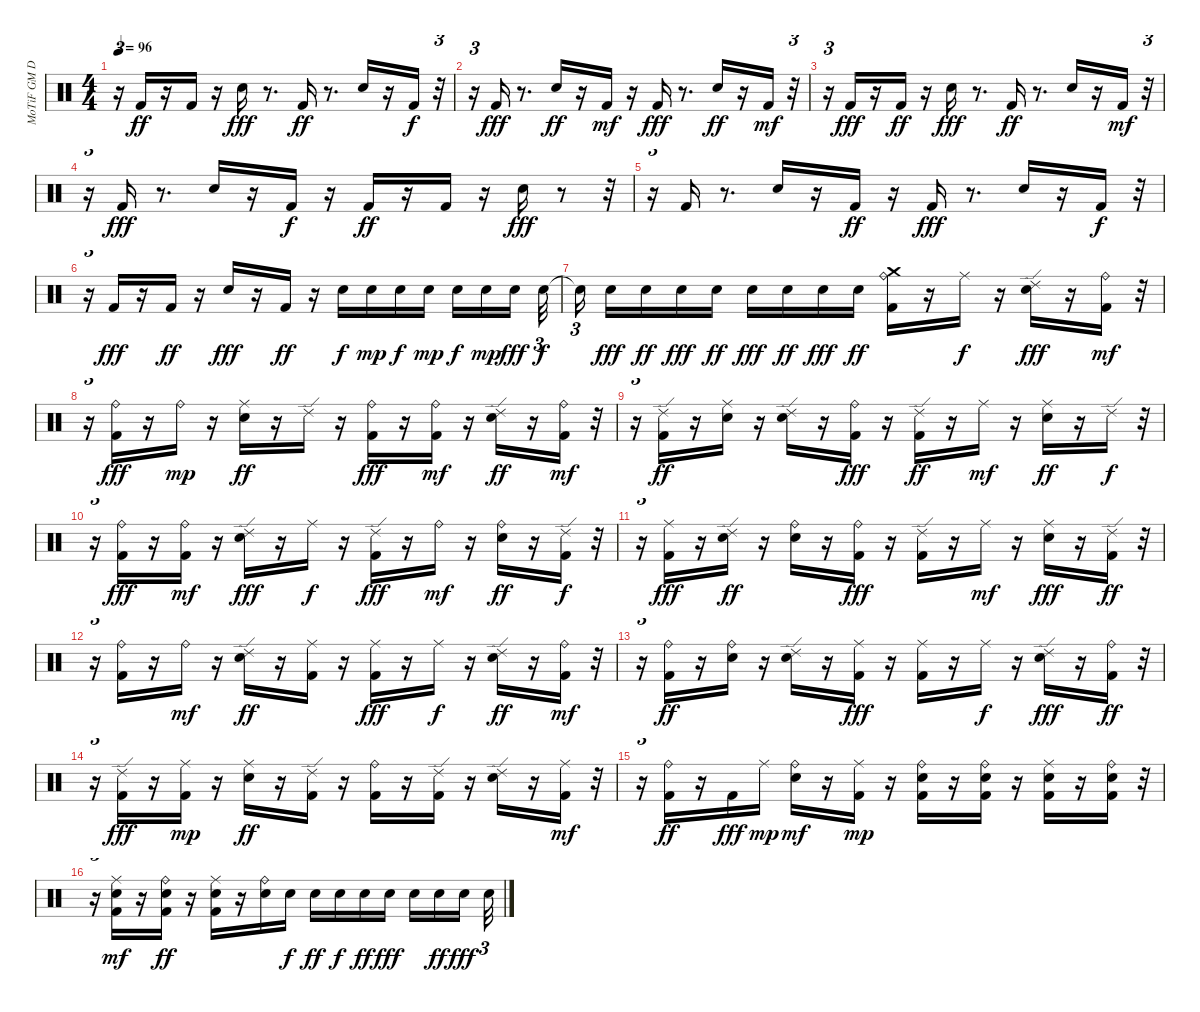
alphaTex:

\track ("MoTiF GM Drums" "MoTiF GM D") {instrument percussion}
\staff {score}
\articulation defaults
\ts (4 4)
\tempo 96
\clef neutral
\ks c
r.16{tu (3 2) dy f} "Kick (hit) 2".16{dy ff} r.16 "Kick (hit) 2".16 r.16 "Electric Snare (hit)".16{dy fff} r.8{d} "Kick (hit) 2".16{dy ff} r.8{d} "Electric Snare (hit)".16 r.16 "Kick (hit) 2".16{dy f} r.32{tu (3 2)} |
r.16{tu (3 2)} "Kick (hit) 2".16{dy fff} r.8{d} "Electric Snare (hit)".16{dy ff} r.16 "Kick (hit) 2".16{dy mf} r.16 "Kick (hit) 2".16{dy fff} r.8{d} "Electric Snare (hit)".16{dy ff} r.16 "Kick (hit) 2".16{dy mf} r.32{tu (3 2)} |
r.16{tu (3 2)} "Kick (hit) 2".16{dy fff} r.16 "Kick (hit) 2".16{dy ff} r.16 "Electric Snare (hit)".16{dy fff} r.8{d} "Kick (hit) 2".16{dy ff} r.8{d} "Electric Snare (hit)".16 r.16 "Kick (hit) 2".16{dy mf} r.32{tu (3 2)} |
r.16{tu (3 2)} "Kick (hit) 2".16{dy fff} r.8{d} "Electric Snare (hit)".16 r.16 "Kick (hit) 2".16{dy f} r.16 "Kick (hit) 2".16{dy ff} r.16 "Kick (hit) 2".16 r.16 "Electric Snare (hit)".16{dy fff} r.8 r.32{tu (3 2)} |
r.16{tu (3 2)} "Kick (hit) 2".16 r.8{d} "Electric Snare (hit)".16 r.16 "Kick (hit) 2".16{dy ff} r.16 "Kick (hit) 2".16{dy fff} r.8{d} "Electric Snare (hit)".16 r.16 "Kick (hit) 2".16{dy f} r.32{tu (3 2)} |
r.16{tu (3 2)} "Kick (hit) 2".16{dy fff} r.16 "Kick (hit) 2".16{dy ff} r.16 "Electric Snare (hit)".16{dy fff} r.16 "Kick (hit) 2".16{dy ff} r.16 "Electric Snare (hit)".16{dy f} "Electric Snare (hit)".16{dy mp} "Electric Snare (hit)".16{dy f} "Electric Snare (hit)".16{dy mp} "Electric Snare (hit)".16{dy f} "Electric Snare (hit)".16{dy mp} "Electric Snare (hit)".16{dy fff} "Electric Snare (hit)".32{tu (3 2) dy f} |
"Snare (hit)"{t}.16{tu (3 2)} "Electric Snare (hit)".16{dy fff} "Electric Snare (hit)".16{dy ff} "Electric Snare (hit)".16{dy fff} "Electric Snare (hit)".16{dy ff} "Electric Snare (hit)".16{dy fff} "Electric Snare (hit)".16{dy ff} "Electric Snare (hit)".16{dy fff} "Electric Snare (hit)".16{dy ff} ("Kick (hit) 2" "Ride (bell)" "Crash medium (hit)").16 r.16 "Ride (middle)".16{dy f} r.16 ("Electric Snare (hit)" "Ride (edge) 2").16{dy fff} r.16 ("Kick (hit) 2" "Ride (bell)").16{dy mf} r.32{tu (3 2)} |
r.16{tu (3 2)} ("Kick (hit) 2" "Ride (bell)").16{dy fff} r.16 "Ride (bell)".16{dy mp} r.16 ("Electric Snare (hit)" "Ride (middle)").16{dy ff} r.16 "Ride (edge) 2".16 r.16 ("Kick (hit) 2" "Ride (bell)").16{dy fff} r.16 ("Kick (hit) 2" "Ride (bell)").16{dy mf} r.16 ("Electric Snare (hit)" "Ride (edge) 2").16{dy ff} r.16 ("Kick (hit) 2" "Ride (bell)").16{dy mf} r.32{tu (3 2)} |
r.16{tu (3 2)} ("Kick (hit) 2" "Ride (edge) 2").16{dy ff} r.16 ("Electric Snare (hit)" "Ride (middle)").16 r.16 ("Electric Snare (hit)" "Ride (edge) 2").16 r.16 ("Kick (hit) 2" "Ride (bell)").16{dy fff} r.16 ("Kick (hit) 2" "Ride (edge) 2").16{dy ff} r.16 "Ride (middle)".16{dy mf} r.16 ("Electric Snare (hit)" "Ride (middle)").16{dy ff} r.16 "Ride (edge) 2".16{dy f} r.32{tu (3 2)} |
r.16{tu (3 2)} ("Kick (hit) 2" "Ride (bell)").16{dy fff} r.16 ("Kick (hit) 2" "Ride (bell)").16{dy mf} r.16 ("Electric Snare (hit)" "Ride (edge) 2").16{dy fff} r.16 "Ride (middle)".16{dy f} r.16 ("Kick (hit) 2" "Ride (edge) 2").16{dy fff} r.16 "Ride (bell)".16{dy mf} r.16 ("Electric Snare (hit)" "Ride (bell)").16{dy ff} r.16 ("Kick (hit) 2" "Ride (edge) 2").16{dy f} r.32{tu (3 2)} |
r.16{tu (3 2)} ("Kick (hit) 2" "Ride (middle)").16{dy fff} r.16 ("Electric Snare (hit)" "Ride (edge) 2").16{dy ff} r.16 ("Electric Snare (hit)" "Ride (bell)").16 r.16 ("Kick (hit) 2" "Ride (bell)").16{dy fff} r.16 ("Kick (hit) 2" "Ride (edge) 2").16 r.16 "Ride (middle)".16{dy mf} r.16 ("Electric Snare (hit)" "Ride (middle)").16{dy fff} r.16 ("Kick (hit) 2" "Ride (edge) 2").16{dy ff} r.32{tu (3 2)} |
r.16{tu (3 2)} ("Kick (hit) 2" "Ride (bell)").16 r.16 "Ride (bell)".16{dy mf} r.16 ("Electric Snare (hit)" "Ride (edge) 2").16{dy ff} r.16 ("Kick (hit) 2" "Ride (middle)").16 r.16 ("Kick (hit) 2" "Ride (middle)").16{dy fff} r.16 "Ride (middle)".16{dy f} r.16 ("Electric Snare (hit)" "Ride (edge) 2").16{dy ff} r.16 ("Kick (hit) 2" "Ride (bell)").16{dy mf} r.32{tu (3 2)} |
r.16{tu (3 2)} ("Kick (hit) 2" "Ride (bell)").16{dy ff} r.16 ("Electric Snare (hit)" "Ride (bell)").16 r.16 ("Electric Snare (hit)" "Ride (edge) 2").16 r.16 ("Kick (hit) 2" "Ride (middle)").16{dy fff} r.16 ("Kick (hit) 2" "Ride (middle)").16 r.16 "Ride (middle)".16{dy f} r.16 ("Electric Snare (hit)" "Ride (edge) 2").16{dy fff} r.16 ("Kick (hit) 2" "Ride (bell)").16{dy ff} r.32{tu (3 2)} |
r.16{tu (3 2)} ("Kick (hit) 2" "Ride (edge) 2").16{dy fff} r.16 ("Kick (hit) 2" "Ride (middle)").16{dy mp} r.16 ("Electric Snare (hit)" "Ride (middle)").16{dy ff} r.16 ("Kick (hit) 2" "Ride (edge) 2").16 r.16 ("Kick (hit) 2" "Ride (bell)").16 r.16 ("Kick (hit) 2" "Ride (edge) 2").16 r.16 ("Electric Snare (hit)" "Ride (edge) 2").16 r.16 ("Kick (hit) 2" "Ride (middle)").16{dy mf} r.32{tu (3 2)} |
r.16{tu (3 2)} ("Kick (hit) 2" "Ride (bell)").16{dy ff} r.16 "Kick (hit) 2".16{dy fff} "Ride (middle)".16{dy mp} ("Electric Snare (hit)" "Ride (bell)").16{dy mf} r.16 ("Kick (hit) 2" "Ride (middle)").16{dy mp} r.16 ("Kick (hit) 2" "Electric Snare (hit)" "Ride (bell)").16 r.16 ("Kick (hit) 2" "Electric Snare (hit)" "Ride (bell)").16 r.16 ("Kick (hit) 2" "Electric Snare (hit)" "Ride (middle)").16 r.16 ("Kick (hit) 2" "Electric Snare (hit)" "Ride (bell)").16 r.32{tu (3 2)} |
r.16{tu (3 2)} ("Kick (hit) 2" "Electric Snare (hit)" "Ride (middle)").16{dy mf} r.16 ("Kick (hit) 2" "Electric Snare (hit)" "Ride (bell)").16{dy ff} r.16 ("Kick (hit) 2" "Electric Snare (hit)" "Ride (middle)").16 r.16 ("Electric Snare (hit)" "Ride (bell)").16 "Electric Snare (hit)".16{dy f} "Electric Snare (hit)".16{dy ff} "Electric Snare (hit)".16{dy f} "Electric Snare (hit)".16{dy ff} "Electric Snare (hit)".16{dy fff} "Electric Snare (hit)".16 "Electric Snare (hit)".16{dy ff} "Electric Snare (hit)".16{dy fff} "Electric Snare (hit)".32{tu (3 2)}
